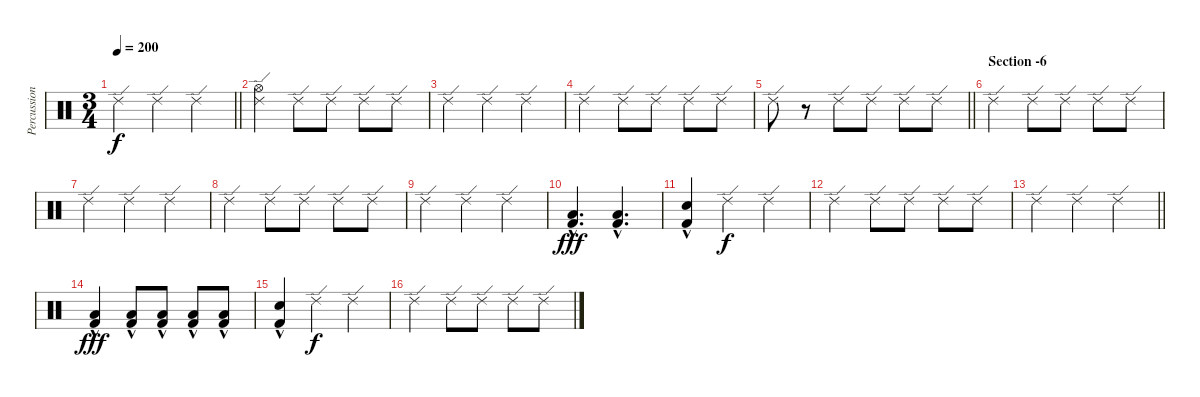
\track ("Percussions" "Percussion") {instrument percussion}
\staff {score}
\articulation defaults
\ts (3 4)
\tempo 200
\clef neutral
\barLineRight lightlight
\ks c "Ride (edge) 2".4{dy f} "Ride (edge) 2".4 "Ride (edge) 2".4
|
("Hi-Hat (open)" "Ride (edge) 2").4 "Ride (edge) 2".8 "Ride (edge) 2".8 "Ride (edge) 2".8 "Ride (edge) 2".8 |
"Ride (edge) 2".4 "Ride (edge) 2".4 "Ride (edge) 2".4 |
"Ride (edge) 2".4 "Ride (edge) 2".8 "Ride (edge) 2".8 "Ride (edge) 2".8 "Ride (edge) 2".8 |
\barLineRight lightlight "Ride (edge) 2".8
r.8 "Ride (edge) 2".8 "Ride (edge) 2".8 "Ride (edge) 2".8 "Ride (edge) 2".8 |
\section ("" "Section -6")
"Ride (edge) 2".4 "Ride (edge) 2".8 "Ride (edge) 2".8 "Ride (edge) 2".8 "Ride (edge) 2".8 |
"Ride (edge) 2".4 "Ride (edge) 2".4 "Ride (edge) 2".4 |
"Ride (edge) 2".4 "Ride (edge) 2".8 "Ride (edge) 2".8 "Ride (edge) 2".8 "Ride (edge) 2".8 |
"Ride (edge) 2".4 "Ride (edge) 2".4 "Ride (edge) 2".4 |
("Low Tom (hit)"{hac} "Kick (hit) 2"{hac}).4{d dy fff} ("Low Tom (hit)"{hac} "Kick (hit) 2"{hac}).4{d} |
("Electric Snare (hit)"{hac} "Kick (hit) 2"{hac}).4 "Ride (edge) 2".4{dy f} "Ride (edge) 2".4 |
"Ride (edge) 2".4 "Ride (edge) 2".8 "Ride (edge) 2".8 "Ride (edge) 2".8 "Ride (edge) 2".8 |
\barLineRight lightlight "Ride (edge) 2".4 "Ride (edge) 2".4 "Ride (edge) 2".4
|
("Low Tom (hit)"{hac} "Kick (hit) 2"{hac}).4{dy fff} ("Low Tom (hit)"{hac} "Kick (hit) 2"{hac}).8 ("Low Tom (hit)"{hac} "Kick (hit) 2"{hac}).8 ("Low Tom (hit)"{hac} "Kick (hit) 2"{hac}).8 ("Low Tom (hit)"{hac} "Kick (hit) 2"{hac}).8 |
("Electric Snare (hit)"{hac} "Kick (hit) 2"{hac}).4 "Ride (edge) 2".4{dy f} "Ride (edge) 2".4 |
"Ride (edge) 2".4 "Ride (edge) 2".8 "Ride (edge) 2".8 "Ride (edge) 2".8 "Ride (edge) 2".8
